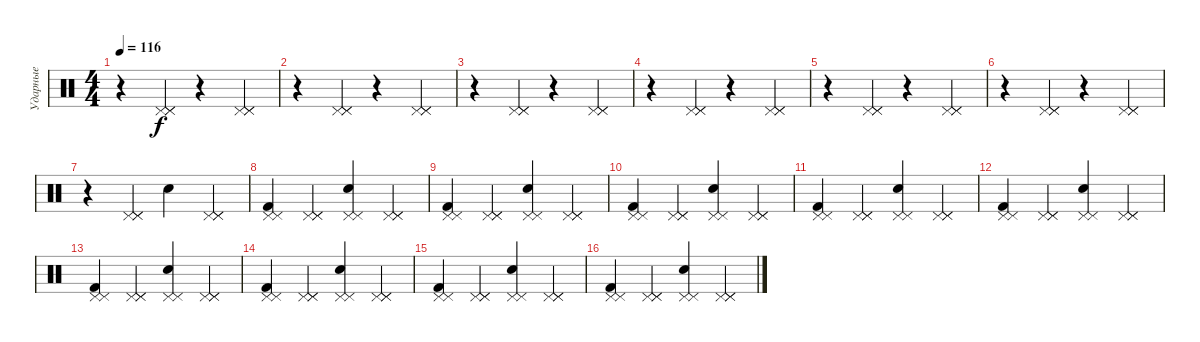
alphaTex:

\track ("Ударные" "Ударные") {instrument percussion}
\staff {score}
\articulation defaults
\ts (4 4)
\tempo 116
\clef neutral
\ks c
r.4{dy f} ("Pedal Hi-Hat (hit)" "Pedal Hi-Hat (hit)" "Pedal Hi-Hat (hit)").4 r.4 ("Pedal Hi-Hat (hit)" "Pedal Hi-Hat (hit)" "Pedal Hi-Hat (hit)").4 |
r.4 ("Pedal Hi-Hat (hit)" "Pedal Hi-Hat (hit)" "Pedal Hi-Hat (hit)").4 r.4 ("Pedal Hi-Hat (hit)" "Pedal Hi-Hat (hit)" "Pedal Hi-Hat (hit)").4 |
r.4{volume 16} ("Pedal Hi-Hat (hit)" "Pedal Hi-Hat (hit)" "Pedal Hi-Hat (hit)").4 r.4 ("Pedal Hi-Hat (hit)" "Pedal Hi-Hat (hit)" "Pedal Hi-Hat (hit)").4 |
r.4 ("Pedal Hi-Hat (hit)" "Pedal Hi-Hat (hit)" "Pedal Hi-Hat (hit)").4 r.4 ("Pedal Hi-Hat (hit)" "Pedal Hi-Hat (hit)" "Pedal Hi-Hat (hit)").4 |
r.4{volume 16} ("Pedal Hi-Hat (hit)" "Pedal Hi-Hat (hit)" "Pedal Hi-Hat (hit)").4 r.4 ("Pedal Hi-Hat (hit)" "Pedal Hi-Hat (hit)" "Pedal Hi-Hat (hit)").4 |
r.4 ("Pedal Hi-Hat (hit)" "Pedal Hi-Hat (hit)" "Pedal Hi-Hat (hit)").4 r.4 ("Pedal Hi-Hat (hit)" "Pedal Hi-Hat (hit)" "Pedal Hi-Hat (hit)").4 |
r.4 ("Pedal Hi-Hat (hit)" "Pedal Hi-Hat (hit)" "Pedal Hi-Hat (hit)").4 "Snare (hit) 2".4 ("Pedal Hi-Hat (hit)" "Pedal Hi-Hat (hit)" "Pedal Hi-Hat (hit)").4 |
("Kick (hit) 2" "Pedal Hi-Hat (hit)" "Pedal Hi-Hat (hit)").4 ("Pedal Hi-Hat (hit)" "Pedal Hi-Hat (hit)" "Pedal Hi-Hat (hit)").4 ("Snare (hit) 2" "Pedal Hi-Hat (hit)" "Pedal Hi-Hat (hit)").4 ("Pedal Hi-Hat (hit)" "Pedal Hi-Hat (hit)" "Pedal Hi-Hat (hit)").4 |
("Kick (hit) 2" "Pedal Hi-Hat (hit)" "Pedal Hi-Hat (hit)").4 ("Pedal Hi-Hat (hit)" "Pedal Hi-Hat (hit)" "Pedal Hi-Hat (hit)").4 ("Snare (hit) 2" "Pedal Hi-Hat (hit)" "Pedal Hi-Hat (hit)").4 ("Pedal Hi-Hat (hit)" "Pedal Hi-Hat (hit)" "Pedal Hi-Hat (hit)").4 |
("Kick (hit) 2" "Pedal Hi-Hat (hit)" "Pedal Hi-Hat (hit)").4 ("Pedal Hi-Hat (hit)" "Pedal Hi-Hat (hit)" "Pedal Hi-Hat (hit)").4 ("Snare (hit) 2" "Pedal Hi-Hat (hit)" "Pedal Hi-Hat (hit)").4 ("Pedal Hi-Hat (hit)" "Pedal Hi-Hat (hit)" "Pedal Hi-Hat (hit)").4 |
("Kick (hit) 2" "Pedal Hi-Hat (hit)" "Pedal Hi-Hat (hit)").4 ("Pedal Hi-Hat (hit)" "Pedal Hi-Hat (hit)" "Pedal Hi-Hat (hit)").4 ("Snare (hit) 2" "Pedal Hi-Hat (hit)" "Pedal Hi-Hat (hit)").4 ("Pedal Hi-Hat (hit)" "Pedal Hi-Hat (hit)" "Pedal Hi-Hat (hit)").4 |
("Kick (hit) 2" "Pedal Hi-Hat (hit)" "Pedal Hi-Hat (hit)").4 ("Pedal Hi-Hat (hit)" "Pedal Hi-Hat (hit)" "Pedal Hi-Hat (hit)").4 ("Snare (hit) 2" "Pedal Hi-Hat (hit)" "Pedal Hi-Hat (hit)").4 ("Pedal Hi-Hat (hit)" "Pedal Hi-Hat (hit)" "Pedal Hi-Hat (hit)").4 |
("Kick (hit) 2" "Pedal Hi-Hat (hit)" "Pedal Hi-Hat (hit)").4 ("Pedal Hi-Hat (hit)" "Pedal Hi-Hat (hit)" "Pedal Hi-Hat (hit)").4 ("Snare (hit) 2" "Pedal Hi-Hat (hit)" "Pedal Hi-Hat (hit)").4 ("Pedal Hi-Hat (hit)" "Pedal Hi-Hat (hit)" "Pedal Hi-Hat (hit)").4 |
("Kick (hit) 2" "Pedal Hi-Hat (hit)" "Pedal Hi-Hat (hit)").4 ("Pedal Hi-Hat (hit)" "Pedal Hi-Hat (hit)" "Pedal Hi-Hat (hit)").4 ("Snare (hit) 2" "Pedal Hi-Hat (hit)" "Pedal Hi-Hat (hit)").4 ("Pedal Hi-Hat (hit)" "Pedal Hi-Hat (hit)" "Pedal Hi-Hat (hit)").4 |
("Kick (hit) 2" "Pedal Hi-Hat (hit)" "Pedal Hi-Hat (hit)").4 ("Pedal Hi-Hat (hit)" "Pedal Hi-Hat (hit)" "Pedal Hi-Hat (hit)").4 ("Snare (hit) 2" "Pedal Hi-Hat (hit)" "Pedal Hi-Hat (hit)").4 ("Pedal Hi-Hat (hit)" "Pedal Hi-Hat (hit)" "Pedal Hi-Hat (hit)").4 |
("Kick (hit) 2" "Pedal Hi-Hat (hit)" "Pedal Hi-Hat (hit)").4 ("Pedal Hi-Hat (hit)" "Pedal Hi-Hat (hit)" "Pedal Hi-Hat (hit)").4 ("Snare (hit) 2" "Pedal Hi-Hat (hit)" "Pedal Hi-Hat (hit)").4 ("Pedal Hi-Hat (hit)" "Pedal Hi-Hat (hit)" "Pedal Hi-Hat (hit)").4
